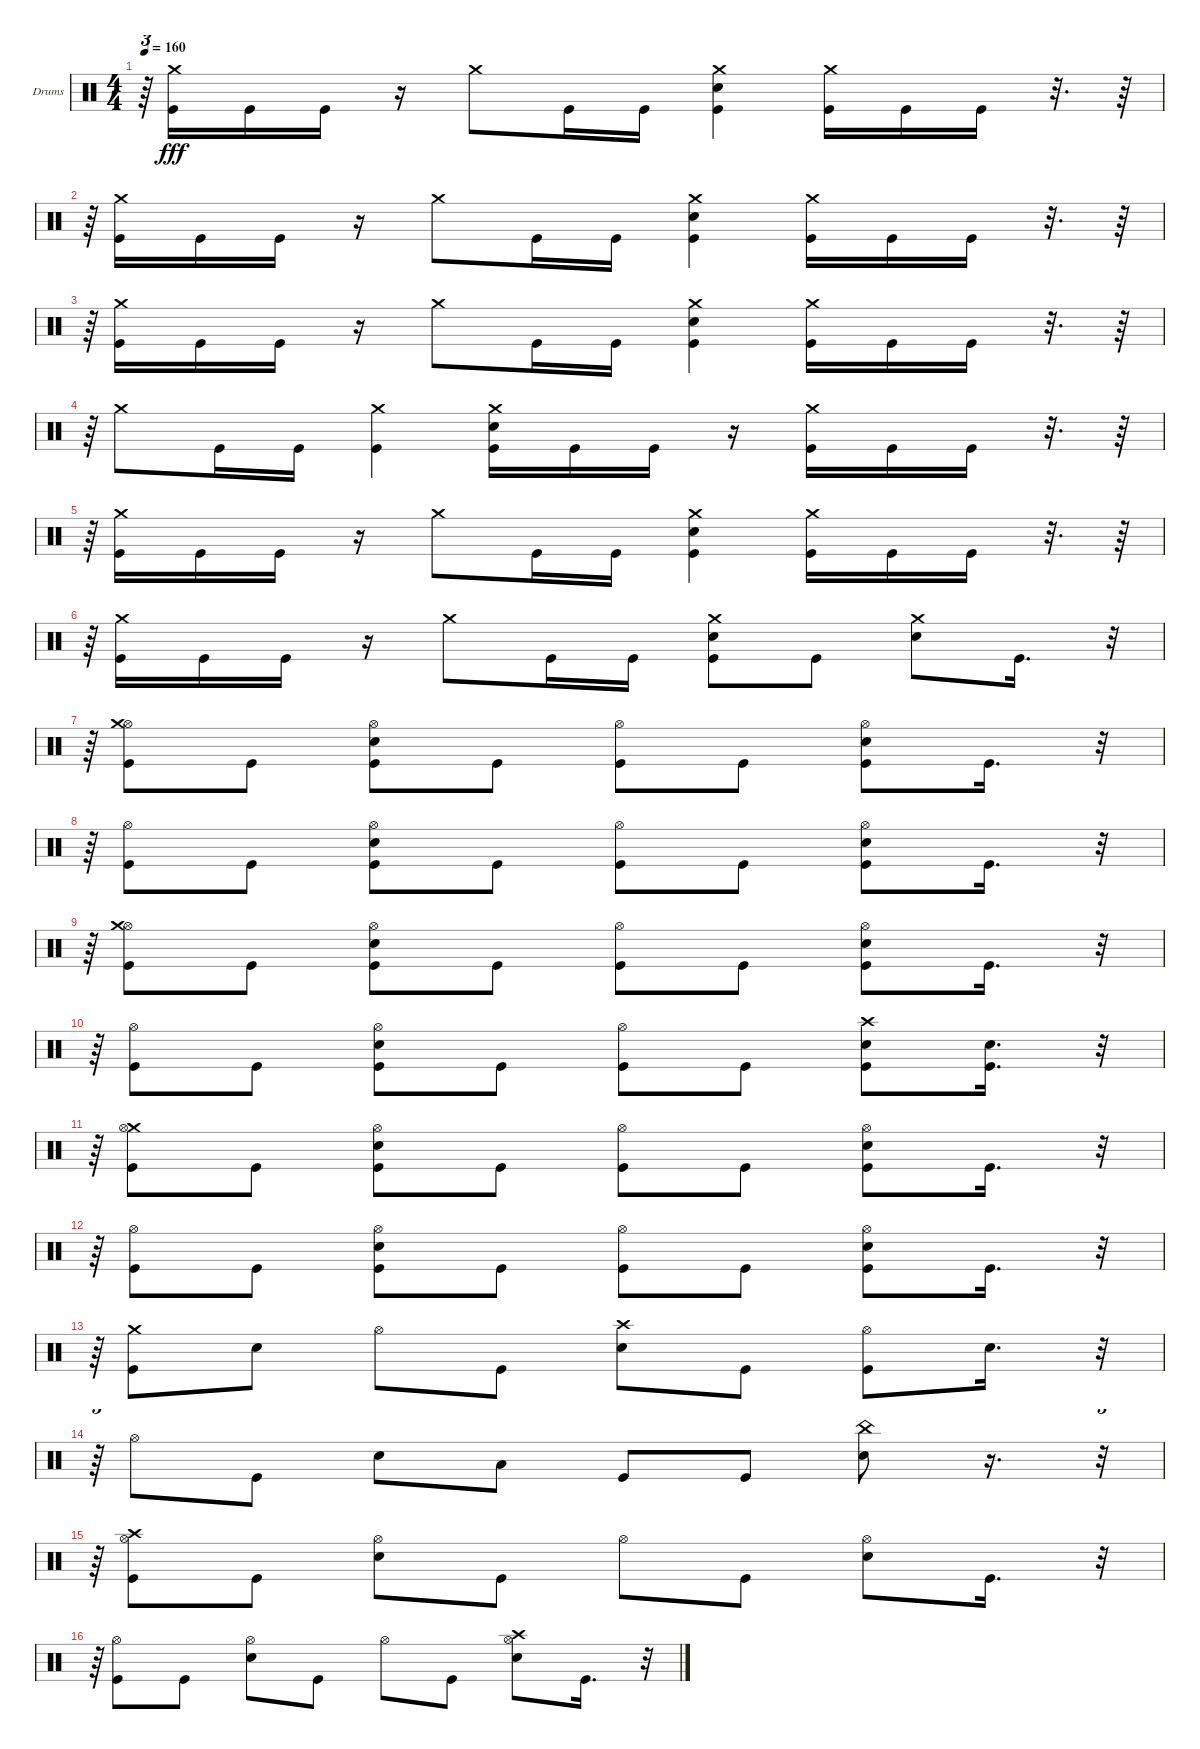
\bracketExtendMode groupsimilarinstruments
\firstSystemTrackNameOrientation horizontal
\otherSystemsTrackNameOrientation horizontal
\track ("Drums" "Drums") {instrument percussion}
\staff {score}
\articulation defaults
\ts (4 4)
\tempo 160
\clef neutral
\ks c
r.64{tu (3 2) dy fff} ("Crash medium (hit)" "Kick (hit)").16 "Kick (hit)".16 "Kick (hit)".16 r.16 "Crash medium (hit)".8 "Kick (hit)".16 "Kick (hit)".16 ("Crash medium (hit)" "Kick (hit)" "Snare (hit) 2").4 ("Crash medium (hit)" "Kick (hit)").16 "Kick (hit)".16 "Kick (hit)".16 r.32{d} r.64 |
r.64{tu (3 2)} ("Crash medium (hit)" "Kick (hit)").16 "Kick (hit)".16 "Kick (hit)".16 r.16 "Crash medium (hit)".8 "Kick (hit)".16 "Kick (hit)".16 ("Crash medium (hit)" "Kick (hit)" "Snare (hit) 2").4 ("Crash medium (hit)" "Kick (hit)").16 "Kick (hit)".16 "Kick (hit)".16 r.32{d} r.64 |
r.64{tu (3 2)} ("Crash medium (hit)" "Kick (hit)").16 "Kick (hit)".16 "Kick (hit)".16 r.16 "Crash medium (hit)".8 "Kick (hit)".16 "Kick (hit)".16 ("Crash medium (hit)" "Kick (hit)" "Snare (hit) 2").4 ("Crash medium (hit)" "Kick (hit)").16 "Kick (hit)".16 "Kick (hit)".16 r.32{d} r.64 |
r.64{tu (3 2)} "Crash medium (hit)".8 "Kick (hit)".16 "Kick (hit)".16 ("Crash medium (hit)" "Kick (hit)").4 ("Crash medium (hit)" "Kick (hit)" "Snare (hit) 2").16 "Kick (hit)".16 "Kick (hit)".16 r.16 ("Crash medium (hit)" "Kick (hit)").16 "Kick (hit)".16 "Kick (hit)".16 r.32{d} r.64 |
r.64{tu (3 2)} ("Crash medium (hit)" "Kick (hit)").16 "Kick (hit)".16 "Kick (hit)".16 r.16 "Crash medium (hit)".8 "Kick (hit)".16 "Kick (hit)".16 ("Crash medium (hit)" "Kick (hit)" "Snare (hit) 2").4 ("Crash medium (hit)" "Kick (hit)").16 "Kick (hit)".16 "Kick (hit)".16 r.32{d} r.64 |
r.64{tu (3 2)} ("Crash medium (hit)" "Kick (hit)").16 "Kick (hit)".16 "Kick (hit)".16 r.16 "Crash medium (hit)".8 "Kick (hit)".16 "Kick (hit)".16 ("Kick (hit)" "Snare (hit) 2" "Crash medium (hit)").8 "Kick (hit)".8 ("Snare (hit) 2" "Crash medium (hit)").8 "Kick (hit)".16{d} r.32{tu (3 2)} |
r.64{tu (3 2)} ("Hi-Hat (open)" "Crash medium (hit)" "Kick (hit)").8 "Kick (hit)".8 ("Hi-Hat (open)" "Snare (hit) 2" "Kick (hit)").8 "Kick (hit)".8 ("Hi-Hat (open)" "Kick (hit)").8 "Kick (hit)".8 ("Hi-Hat (open)" "Snare (hit) 2" "Kick (hit)").8 "Kick (hit)".16{d} r.32{tu (3 2)} |
r.64{tu (3 2)} ("Hi-Hat (open)" "Kick (hit)").8 "Kick (hit)".8 ("Hi-Hat (open)" "Snare (hit) 2" "Kick (hit)").8 "Kick (hit)".8 ("Kick (hit)" "Hi-Hat (open)").8 "Kick (hit)".8 ("Kick (hit)" "Snare (hit) 2" "Hi-Hat (open)").8 "Kick (hit)".16{d} r.32{tu (3 2)} |
r.64{tu (3 2)} ("Hi-Hat (open)" "Crash medium (hit)" "Kick (hit)").8 "Kick (hit)".8 ("Hi-Hat (open)" "Snare (hit) 2" "Kick (hit)").8 "Kick (hit)".8 ("Hi-Hat (open)" "Kick (hit)").8 "Kick (hit)".8 ("Hi-Hat (open)" "Snare (hit) 2" "Kick (hit)").8 "Kick (hit)".16{d} r.32{tu (3 2)} |
r.64{tu (3 2)} ("Hi-Hat (open)" "Kick (hit)").8 "Kick (hit)".8 ("Hi-Hat (open)" "Snare (hit) 2" "Kick (hit)").8 "Kick (hit)".8 ("Hi-Hat (open)" "Kick (hit)").8 "Kick (hit)".8 ("Kick (hit)" "Crash high (hit)" "Snare (hit) 2").8 ("Kick (hit)" "Snare (hit) 2").16{d} r.32{tu (3 2)} |
r.64{tu (3 2)} ("Crash medium (hit)" "Hi-Hat (open)" "Kick (hit)").8 "Kick (hit)".8 ("Hi-Hat (open)" "Snare (hit) 2" "Kick (hit)").8 "Kick (hit)".8 ("Hi-Hat (open)" "Kick (hit)").8 "Kick (hit)".8 ("Hi-Hat (open)" "Snare (hit) 2" "Kick (hit)").8 "Kick (hit)".16{d} r.32{tu (3 2)} |
r.64{tu (3 2)} ("Hi-Hat (open)" "Kick (hit)").8 "Kick (hit)".8 ("Hi-Hat (open)" "Snare (hit) 2" "Kick (hit)").8 "Kick (hit)".8 ("Hi-Hat (open)" "Kick (hit)").8 "Kick (hit)".8 ("Hi-Hat (open)" "Kick (hit)" "Snare (hit) 2").8 "Kick (hit)".16{d} r.32{tu (3 2)} |
r.64{tu (3 2)} ("Crash medium (hit)" "Kick (hit)").8 "Snare (hit) 2".8 "Hi-Hat (open)".8 "Kick (hit)".8 ("Snare (hit) 2" "Crash high (hit)").8 "Kick (hit)".8 ("Hi-Hat (open)" "Kick (hit)").8 "Snare (hit) 2".16{d} r.32{tu (3 2)} |
r.64{tu (3 2)} "Hi-Hat (open)".8 "Kick (hit)".8 "Snare (hit) 2".8 "Low Tom (hit)".8 "Kick (hit)".8 "Kick (hit)".8 ("Snare (hit) 2" "China (hit)").8 r.16{d} r.32{tu (3 2)} |
r.64{tu (3 2)} ("Crash high (hit)" "Hi-Hat (open)" "Kick (hit)").8 "Kick (hit)".8 ("Snare (hit) 2" "Hi-Hat (open)").8 "Kick (hit)".8 "Hi-Hat (open)".8 "Kick (hit)".8 ("Snare (hit) 2" "Hi-Hat (open)").8 "Kick (hit)".16{d} r.32{tu (3 2)} |
r.64{tu (3 2)} ("Hi-Hat (open)" "Kick (hit)").8 "Kick (hit)".8 ("Snare (hit) 2" "Hi-Hat (open)").8 "Kick (hit)".8 "Hi-Hat (open)".8 "Kick (hit)".8 ("Snare (hit) 2" "Hi-Hat (open)" "Crash high (hit)").8 "Kick (hit)".16{d} r.32{tu (3 2)}
